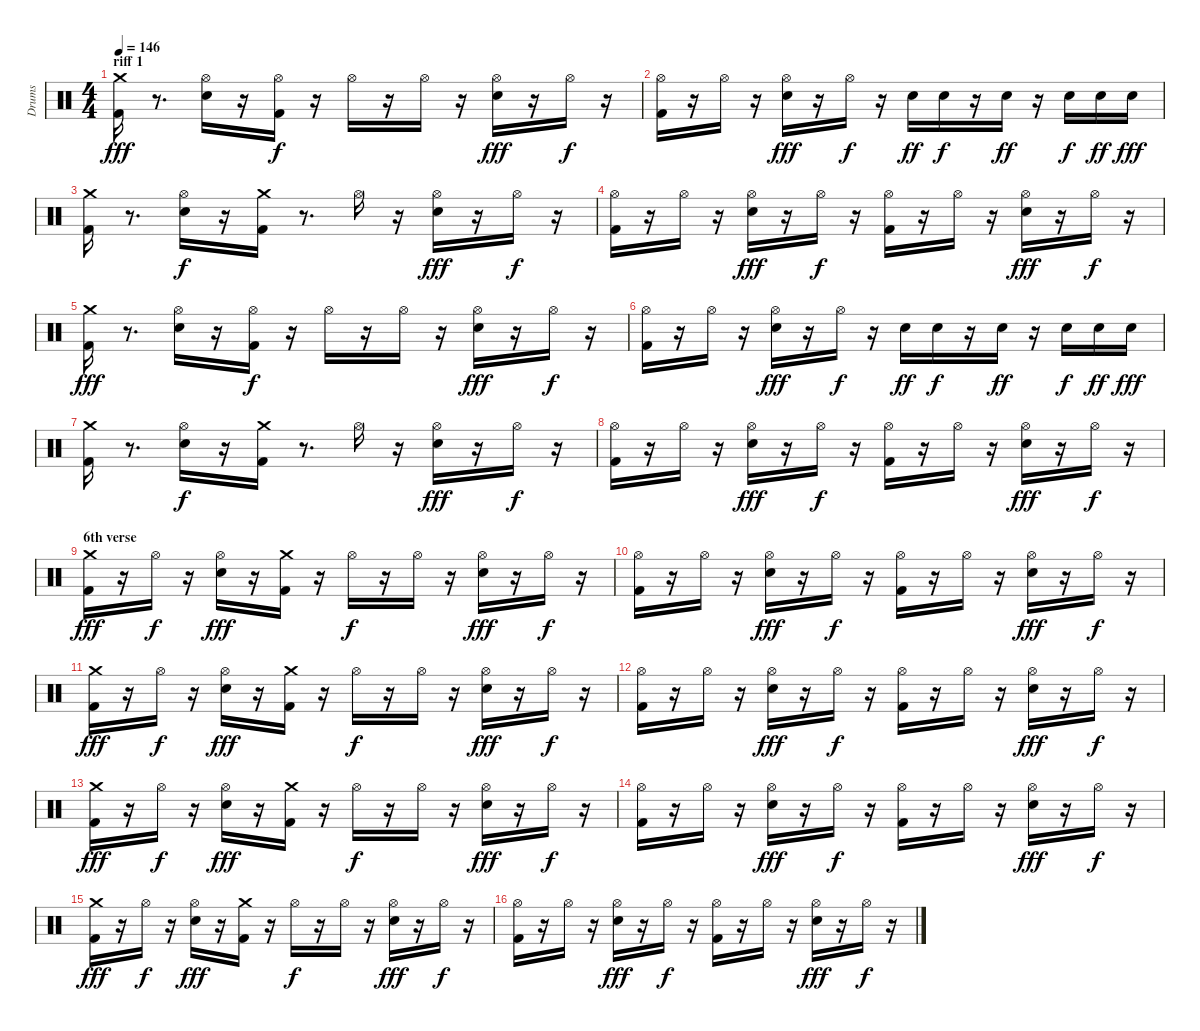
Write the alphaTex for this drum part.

\track ("Drums" "Drums") {instrument percussion}
\staff {score}
\articulation defaults
\ts (4 4)
\section ("" "riff 1")
\tempo 146
\clef neutral
\ks c
("Kick (hit) 2" "Crash medium (hit)").16{dy fff} r.8{d} ("Snare (hit) 2" "Hi-Hat (open)").16 r.16 ("Kick (hit) 2" "Hi-Hat (open)").16{dy f} r.16 "Hi-Hat (open)".16 r.16 "Hi-Hat (open)".16 r.16 ("Snare (hit) 2" "Hi-Hat (open)").16{dy fff} r.16 "Hi-Hat (open)".16{dy f} r.16 |
("Kick (hit) 2" "Hi-Hat (open)").16 r.16 "Hi-Hat (open)".16 r.16 ("Snare (hit) 2" "Hi-Hat (open)").16{dy fff} r.16 "Hi-Hat (open)".16{dy f} r.16 "Snare (hit) 2".16{dy ff} "Snare (hit) 2".16{dy f} r.16 "Snare (hit) 2".16{dy ff} r.16 "Snare (hit) 2".16{dy f} "Snare (hit) 2".16{dy ff} "Snare (hit) 2".16{dy fff} |
("Kick (hit) 2" "Crash medium (hit)").16 r.8{d} ("Snare (hit) 2" "Hi-Hat (open)").16{dy f} r.16 ("Kick (hit) 2" "Crash medium (hit)").16 r.8{d} "Hi-Hat (open)".16 r.16 ("Snare (hit) 2" "Hi-Hat (open)").16{dy fff} r.16 "Hi-Hat (open)".16{dy f} r.16 |
("Kick (hit) 2" "Hi-Hat (open)").16 r.16 "Hi-Hat (open)".16 r.16 ("Snare (hit) 2" "Hi-Hat (open)").16{dy fff} r.16 "Hi-Hat (open)".16{dy f} r.16 ("Kick (hit) 2" "Hi-Hat (open)").16 r.16 "Hi-Hat (open)".16 r.16 ("Snare (hit) 2" "Hi-Hat (open)").16{dy fff} r.16 "Hi-Hat (open)".16{dy f} r.16 |
("Kick (hit) 2" "Crash medium (hit)").16{dy fff} r.8{d} ("Snare (hit) 2" "Hi-Hat (open)").16 r.16 ("Kick (hit) 2" "Hi-Hat (open)").16{dy f} r.16 "Hi-Hat (open)".16 r.16 "Hi-Hat (open)".16 r.16 ("Snare (hit) 2" "Hi-Hat (open)").16{dy fff} r.16 "Hi-Hat (open)".16{dy f} r.16 |
("Kick (hit) 2" "Hi-Hat (open)").16 r.16 "Hi-Hat (open)".16 r.16 ("Snare (hit) 2" "Hi-Hat (open)").16{dy fff} r.16 "Hi-Hat (open)".16{dy f} r.16 "Snare (hit) 2".16{dy ff} "Snare (hit) 2".16{dy f} r.16 "Snare (hit) 2".16{dy ff} r.16 "Snare (hit) 2".16{dy f} "Snare (hit) 2".16{dy ff} "Snare (hit) 2".16{dy fff} |
("Kick (hit) 2" "Crash medium (hit)").16 r.8{d} ("Snare (hit) 2" "Hi-Hat (open)").16{dy f} r.16 ("Kick (hit) 2" "Crash medium (hit)").16 r.8{d} "Hi-Hat (open)".16 r.16 ("Snare (hit) 2" "Hi-Hat (open)").16{dy fff} r.16 "Hi-Hat (open)".16{dy f} r.16 |
("Kick (hit) 2" "Hi-Hat (open)").16 r.16 "Hi-Hat (open)".16 r.16 ("Snare (hit) 2" "Hi-Hat (open)").16{dy fff} r.16 "Hi-Hat (open)".16{dy f} r.16 ("Kick (hit) 2" "Hi-Hat (open)").16 r.16 "Hi-Hat (open)".16 r.16 ("Snare (hit) 2" "Hi-Hat (open)").16{dy fff} r.16 "Hi-Hat (open)".16{dy f} r.16 |
\section ("" "6th verse")
("Kick (hit) 2" "Crash medium (hit)").16{dy fff} r.16 "Hi-Hat (open)".16{dy f} r.16 ("Snare (hit) 2" "Hi-Hat (open)").16{dy fff} r.16 ("Kick (hit) 2" "Crash medium (hit)").16 r.16 "Hi-Hat (open)".16{dy f} r.16 "Hi-Hat (open)".16 r.16 ("Snare (hit) 2" "Hi-Hat (open)").16{dy fff} r.16 "Hi-Hat (open)".16{dy f} r.16 |
("Kick (hit) 2" "Hi-Hat (open)").16 r.16 "Hi-Hat (open)".16 r.16 ("Snare (hit) 2" "Hi-Hat (open)").16{dy fff} r.16 "Hi-Hat (open)".16{dy f} r.16 ("Kick (hit) 2" "Hi-Hat (open)").16 r.16 "Hi-Hat (open)".16 r.16 ("Snare (hit) 2" "Hi-Hat (open)").16{dy fff} r.16 "Hi-Hat (open)".16{dy f} r.16 |
("Kick (hit) 2" "Crash medium (hit)").16{dy fff} r.16 "Hi-Hat (open)".16{dy f} r.16 ("Snare (hit) 2" "Hi-Hat (open)").16{dy fff} r.16 ("Kick (hit) 2" "Crash medium (hit)").16 r.16 "Hi-Hat (open)".16{dy f} r.16 "Hi-Hat (open)".16 r.16 ("Snare (hit) 2" "Hi-Hat (open)").16{dy fff} r.16 "Hi-Hat (open)".16{dy f} r.16 |
("Kick (hit) 2" "Hi-Hat (open)").16 r.16 "Hi-Hat (open)".16 r.16 ("Snare (hit) 2" "Hi-Hat (open)").16{dy fff} r.16 "Hi-Hat (open)".16{dy f} r.16 ("Kick (hit) 2" "Hi-Hat (open)").16 r.16 "Hi-Hat (open)".16 r.16 ("Snare (hit) 2" "Hi-Hat (open)").16{dy fff} r.16 "Hi-Hat (open)".16{dy f} r.16 |
("Kick (hit) 2" "Crash medium (hit)").16{dy fff} r.16 "Hi-Hat (open)".16{dy f} r.16 ("Snare (hit) 2" "Hi-Hat (open)").16{dy fff} r.16 ("Kick (hit) 2" "Crash medium (hit)").16 r.16 "Hi-Hat (open)".16{dy f} r.16 "Hi-Hat (open)".16 r.16 ("Snare (hit) 2" "Hi-Hat (open)").16{dy fff} r.16 "Hi-Hat (open)".16{dy f} r.16 |
("Kick (hit) 2" "Hi-Hat (open)").16 r.16 "Hi-Hat (open)".16 r.16 ("Snare (hit) 2" "Hi-Hat (open)").16{dy fff} r.16 "Hi-Hat (open)".16{dy f} r.16 ("Kick (hit) 2" "Hi-Hat (open)").16 r.16 "Hi-Hat (open)".16 r.16 ("Snare (hit) 2" "Hi-Hat (open)").16{dy fff} r.16 "Hi-Hat (open)".16{dy f} r.16 |
("Kick (hit) 2" "Crash medium (hit)").16{dy fff} r.16 "Hi-Hat (open)".16{dy f} r.16 ("Snare (hit) 2" "Hi-Hat (open)").16{dy fff} r.16 ("Kick (hit) 2" "Crash medium (hit)").16 r.16 "Hi-Hat (open)".16{dy f} r.16 "Hi-Hat (open)".16 r.16 ("Snare (hit) 2" "Hi-Hat (open)").16{dy fff} r.16 "Hi-Hat (open)".16{dy f} r.16 |
("Kick (hit) 2" "Hi-Hat (open)").16 r.16 "Hi-Hat (open)".16 r.16 ("Snare (hit) 2" "Hi-Hat (open)").16{dy fff} r.16 "Hi-Hat (open)".16{dy f} r.16 ("Kick (hit) 2" "Hi-Hat (open)").16 r.16 "Hi-Hat (open)".16 r.16 ("Snare (hit) 2" "Hi-Hat (open)").16{dy fff} r.16 "Hi-Hat (open)".16{dy f} r.16
